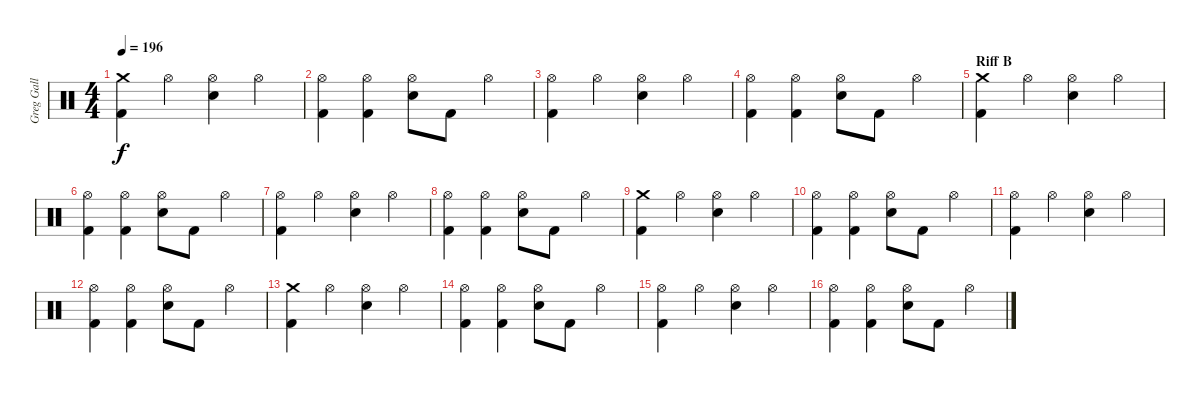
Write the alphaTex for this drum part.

\track ("Greg Gall" "Greg Gall") {instrument percussion}
\staff {score}
\articulation defaults
\ts (4 4)
\tempo 196
\clef neutral
\ks c
("Crash medium (hit)" "Kick (hit) 2").4{dy f} "Hi-Hat (open)".4 ("Hi-Hat (open)" "Electric Snare (hit)").4 "Hi-Hat (open)".4 |
("Hi-Hat (open)" "Kick (hit) 2").4 ("Hi-Hat (open)" "Kick (hit) 2").4 ("Hi-Hat (open)" "Electric Snare (hit)").8 "Kick (hit) 2".8 "Hi-Hat (open)".4 |
("Hi-Hat (open)" "Kick (hit) 2").4 "Hi-Hat (open)".4 ("Hi-Hat (open)" "Electric Snare (hit)").4 "Hi-Hat (open)".4 |
("Hi-Hat (open)" "Kick (hit) 2").4 ("Hi-Hat (open)" "Kick (hit) 2").4 ("Hi-Hat (open)" "Electric Snare (hit)").8 "Kick (hit) 2".8 "Hi-Hat (open)".4 |
\section ("" "Riff B")
("Crash medium (hit)" "Kick (hit) 2").4 "Hi-Hat (open)".4 ("Hi-Hat (open)" "Electric Snare (hit)").4 "Hi-Hat (open)".4 |
("Hi-Hat (open)" "Kick (hit) 2").4 ("Hi-Hat (open)" "Kick (hit) 2").4 ("Hi-Hat (open)" "Electric Snare (hit)").8 "Kick (hit) 2".8 "Hi-Hat (open)".4 |
("Hi-Hat (open)" "Kick (hit) 2").4 "Hi-Hat (open)".4 ("Hi-Hat (open)" "Electric Snare (hit)").4 "Hi-Hat (open)".4 |
("Hi-Hat (open)" "Kick (hit) 2").4 ("Hi-Hat (open)" "Kick (hit) 2").4 ("Hi-Hat (open)" "Electric Snare (hit)").8 "Kick (hit) 2".8 "Hi-Hat (open)".4 |
("Crash medium (hit)" "Kick (hit) 2").4 "Hi-Hat (open)".4 ("Hi-Hat (open)" "Electric Snare (hit)").4 "Hi-Hat (open)".4 |
("Hi-Hat (open)" "Kick (hit) 2").4 ("Hi-Hat (open)" "Kick (hit) 2").4 ("Hi-Hat (open)" "Electric Snare (hit)").8 "Kick (hit) 2".8 "Hi-Hat (open)".4 |
("Hi-Hat (open)" "Kick (hit) 2").4 "Hi-Hat (open)".4 ("Hi-Hat (open)" "Electric Snare (hit)").4 "Hi-Hat (open)".4 |
("Hi-Hat (open)" "Kick (hit) 2").4 ("Hi-Hat (open)" "Kick (hit) 2").4 ("Hi-Hat (open)" "Electric Snare (hit)").8 "Kick (hit) 2".8 "Hi-Hat (open)".4 |
("Crash medium (hit)" "Kick (hit) 2").4 "Hi-Hat (open)".4 ("Hi-Hat (open)" "Electric Snare (hit)").4 "Hi-Hat (open)".4 |
("Hi-Hat (open)" "Kick (hit) 2").4 ("Hi-Hat (open)" "Kick (hit) 2").4 ("Hi-Hat (open)" "Electric Snare (hit)").8 "Kick (hit) 2".8 "Hi-Hat (open)".4 |
("Hi-Hat (open)" "Kick (hit) 2").4 "Hi-Hat (open)".4 ("Hi-Hat (open)" "Electric Snare (hit)").4 "Hi-Hat (open)".4 |
("Hi-Hat (open)" "Kick (hit) 2").4 ("Hi-Hat (open)" "Kick (hit) 2").4 ("Hi-Hat (open)" "Electric Snare (hit)").8 "Kick (hit) 2".8 "Hi-Hat (open)".4
